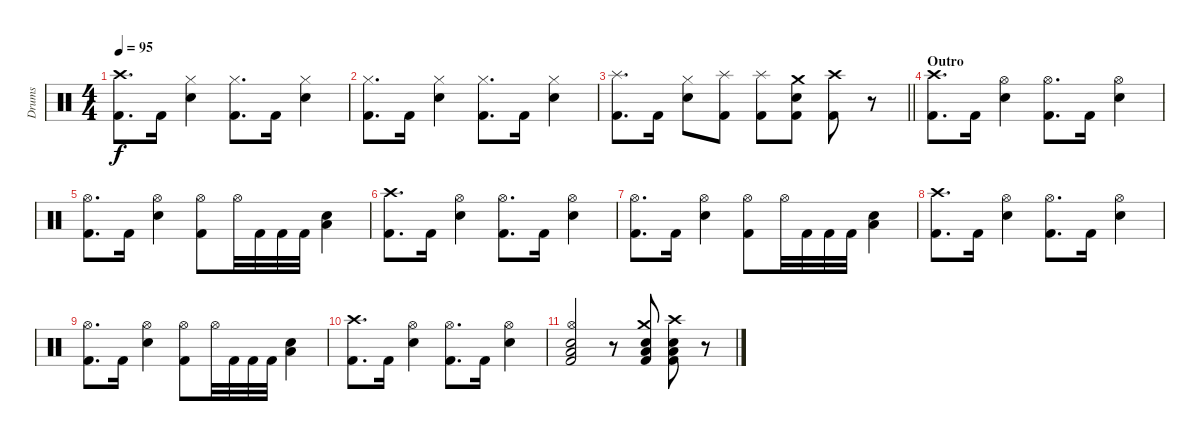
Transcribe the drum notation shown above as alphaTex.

\track ("Drums" "Drums") {instrument percussion}
\staff {score}
\articulation defaults
\ts (4 4)
\tempo 95
\clef neutral
\ks c
("Crash high (hit)" "Kick (hit) 2").8{d dy f} "Kick (hit) 2".16 ("Hi-Hat (closed)" "Snare (hit) 2").4 ("Hi-Hat (closed)" "Kick (hit) 2").8{d} "Kick (hit) 2".16 ("Hi-Hat (closed)" "Snare (hit) 2").4 |
("Hi-Hat (closed)" "Kick (hit) 2").8{d} "Kick (hit) 2".16 ("Hi-Hat (closed)" "Snare (hit) 2").4 ("Hi-Hat (closed)" "Kick (hit) 2").8{d} "Kick (hit) 2".16 ("Hi-Hat (closed)" "Snare (hit) 2").4 |
\barLineRight lightlight
("Splash (hit)" "Kick (hit) 2").8{d} "Kick (hit) 2".16 ("Hi-Hat (closed)" "Snare (hit) 2").8 ("Splash (hit)" "Kick (hit) 2").8 ("Splash (hit)" "Kick (hit) 2").8 ("Crash medium (hit)" "Snare (hit) 2" "Kick (hit) 2").8 ("Crash high (hit)" "Kick (hit) 2").8 r.8 |
\section ("" "Outro")
("Crash high (hit)" "Kick (hit) 2").8{d} "Kick (hit) 2".16 ("Hi-Hat (open)" "Snare (hit) 2").4 ("Hi-Hat (open)" "Kick (hit) 2").8{d} "Kick (hit) 2".16 ("Hi-Hat (open)" "Snare (hit) 2").4 |
("Hi-Hat (open)" "Kick (hit) 2").8{d} "Kick (hit) 2".16 ("Hi-Hat (open)" "Snare (hit) 2").4 ("Hi-Hat (open)" "Kick (hit) 2").8 "Hi-Hat (open)".32 "Kick (hit) 2".32 "Kick (hit) 2".32 "Kick (hit) 2".32 ("Snare (hit) 2" "Low Floor Tom (hit)").4 |
("Crash high (hit)" "Kick (hit) 2").8{d} "Kick (hit) 2".16 ("Hi-Hat (open)" "Snare (hit) 2").4 ("Hi-Hat (open)" "Kick (hit) 2").8{d} "Kick (hit) 2".16 ("Hi-Hat (open)" "Snare (hit) 2").4 |
("Hi-Hat (open)" "Kick (hit) 2").8{d} "Kick (hit) 2".16 ("Hi-Hat (open)" "Snare (hit) 2").4 ("Hi-Hat (open)" "Kick (hit) 2").8 "Hi-Hat (open)".32 "Kick (hit) 2".32 "Kick (hit) 2".32 "Kick (hit) 2".32 ("Snare (hit) 2" "Low Floor Tom (hit)").4 |
("Crash high (hit)" "Kick (hit) 2").8{d} "Kick (hit) 2".16 ("Hi-Hat (open)" "Snare (hit) 2").4 ("Hi-Hat (open)" "Kick (hit) 2").8{d} "Kick (hit) 2".16 ("Hi-Hat (open)" "Snare (hit) 2").4 |
("Hi-Hat (open)" "Kick (hit) 2").8{d} "Kick (hit) 2".16 ("Hi-Hat (open)" "Snare (hit) 2").4 ("Hi-Hat (open)" "Kick (hit) 2").8 "Hi-Hat (open)".32 "Kick (hit) 2".32 "Kick (hit) 2".32 "Kick (hit) 2".32 ("Snare (hit) 2" "Low Floor Tom (hit)").4 |
("Crash high (hit)" "Kick (hit) 2").8{d} "Kick (hit) 2".16 ("Hi-Hat (open)" "Snare (hit) 2").4 ("Hi-Hat (open)" "Kick (hit) 2").8{d} "Kick (hit) 2".16 ("Hi-Hat (open)" "Snare (hit) 2").4 |
("Hi-Hat (open)" "Snare (hit) 2" "Low Floor Tom (hit)" "Kick (hit) 2").2 r.8 ("Crash medium (hit)" "Snare (hit) 2" "Low Floor Tom (hit)" "Kick (hit) 2").8 ("Crash high (hit)" "Snare (hit) 2" "Low Floor Tom (hit)" "Kick (hit) 2").8 r.8
